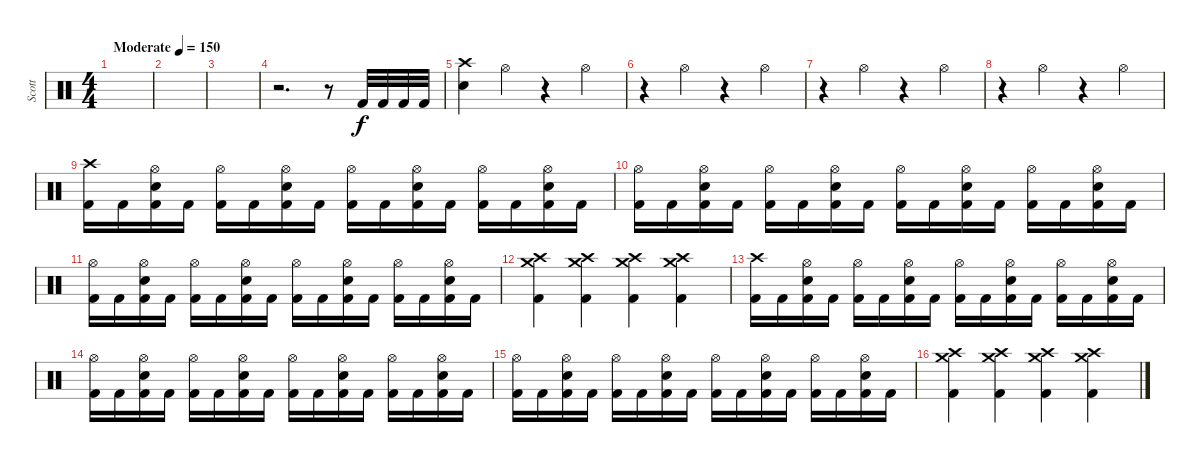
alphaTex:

\track ("Scott" "Scott") {instrument percussion}
\staff {score}
\articulation defaults
\ts (4 4)
\tempo (150 "Moderate")
\clef neutral
\ks c
|
|
|
r.2{d} r.8 "Kick (hit) 2".32 "Kick (hit) 2".32 "Kick (hit) 2".32 "Kick (hit) 2".32 |
("Crash high (hit)" "Snare (hit) 2").4 "Hi-Hat (open)".4 r.4 "Hi-Hat (open)".4 |
r.4 "Hi-Hat (open)".4 r.4 "Hi-Hat (open)".4 |
r.4 "Hi-Hat (open)".4 r.4 "Hi-Hat (open)".4 |
r.4 "Hi-Hat (open)".4 r.4 "Hi-Hat (open)".4 |
("Crash high (hit)" "Kick (hit) 2").16 "Kick (hit) 2".16 ("Hi-Hat (open)" "Snare (hit) 2" "Kick (hit) 2").16 "Kick (hit) 2".16 ("Hi-Hat (open)" "Kick (hit) 2").16 "Kick (hit) 2".16 ("Hi-Hat (open)" "Snare (hit) 2" "Kick (hit) 2").16 "Kick (hit) 2".16 ("Hi-Hat (open)" "Kick (hit) 2").16 "Kick (hit) 2".16 ("Hi-Hat (open)" "Snare (hit) 2" "Kick (hit) 2").16 "Kick (hit) 2".16 ("Hi-Hat (open)" "Kick (hit) 2").16 "Kick (hit) 2".16 ("Hi-Hat (open)" "Snare (hit) 2" "Kick (hit) 2").16 "Kick (hit) 2".16 |
("Hi-Hat (open)" "Kick (hit) 2").16 "Kick (hit) 2".16 ("Hi-Hat (open)" "Snare (hit) 2" "Kick (hit) 2").16 "Kick (hit) 2".16 ("Hi-Hat (open)" "Kick (hit) 2").16 "Kick (hit) 2".16 ("Hi-Hat (open)" "Snare (hit) 2" "Kick (hit) 2").16 "Kick (hit) 2".16 ("Hi-Hat (open)" "Kick (hit) 2").16 "Kick (hit) 2".16 ("Hi-Hat (open)" "Snare (hit) 2" "Kick (hit) 2").16 "Kick (hit) 2".16 ("Hi-Hat (open)" "Kick (hit) 2").16 "Kick (hit) 2".16 ("Hi-Hat (open)" "Snare (hit) 2" "Kick (hit) 2").16 "Kick (hit) 2".16 |
("Hi-Hat (open)" "Kick (hit) 2").16 "Kick (hit) 2".16 ("Hi-Hat (open)" "Snare (hit) 2" "Kick (hit) 2").16 "Kick (hit) 2".16 ("Hi-Hat (open)" "Kick (hit) 2").16 "Kick (hit) 2".16 ("Hi-Hat (open)" "Snare (hit) 2" "Kick (hit) 2").16 "Kick (hit) 2".16 ("Hi-Hat (open)" "Kick (hit) 2").16 "Kick (hit) 2".16 ("Hi-Hat (open)" "Snare (hit) 2" "Kick (hit) 2").16 "Kick (hit) 2".16 ("Hi-Hat (open)" "Kick (hit) 2").16 "Kick (hit) 2".16 ("Hi-Hat (open)" "Snare (hit) 2" "Kick (hit) 2").16 "Kick (hit) 2".16 |
("Crash high (hit)" "Crash medium (hit)" "Kick (hit) 2").4 ("Crash medium (hit)" "Crash high (hit)" "Kick (hit) 2").4 ("Crash high (hit)" "Crash medium (hit)" "Kick (hit) 2").4 ("Crash medium (hit)" "Crash high (hit)" "Kick (hit) 2").4 |
("Crash high (hit)" "Kick (hit) 2").16 "Kick (hit) 2".16 ("Hi-Hat (open)" "Snare (hit) 2" "Kick (hit) 2").16 "Kick (hit) 2".16 ("Hi-Hat (open)" "Kick (hit) 2").16 "Kick (hit) 2".16 ("Hi-Hat (open)" "Snare (hit) 2" "Kick (hit) 2").16 "Kick (hit) 2".16 ("Hi-Hat (open)" "Kick (hit) 2").16 "Kick (hit) 2".16 ("Hi-Hat (open)" "Snare (hit) 2" "Kick (hit) 2").16 "Kick (hit) 2".16 ("Hi-Hat (open)" "Kick (hit) 2").16 "Kick (hit) 2".16 ("Hi-Hat (open)" "Snare (hit) 2" "Kick (hit) 2").16 "Kick (hit) 2".16 |
("Hi-Hat (open)" "Kick (hit) 2").16 "Kick (hit) 2".16 ("Hi-Hat (open)" "Snare (hit) 2" "Kick (hit) 2").16 "Kick (hit) 2".16 ("Hi-Hat (open)" "Kick (hit) 2").16 "Kick (hit) 2".16 ("Hi-Hat (open)" "Snare (hit) 2" "Kick (hit) 2").16 "Kick (hit) 2".16 ("Hi-Hat (open)" "Kick (hit) 2").16 "Kick (hit) 2".16 ("Hi-Hat (open)" "Snare (hit) 2" "Kick (hit) 2").16 "Kick (hit) 2".16 ("Hi-Hat (open)" "Kick (hit) 2").16 "Kick (hit) 2".16 ("Hi-Hat (open)" "Snare (hit) 2" "Kick (hit) 2").16 "Kick (hit) 2".16 |
("Hi-Hat (open)" "Kick (hit) 2").16 "Kick (hit) 2".16 ("Hi-Hat (open)" "Snare (hit) 2" "Kick (hit) 2").16 "Kick (hit) 2".16 ("Hi-Hat (open)" "Kick (hit) 2").16 "Kick (hit) 2".16 ("Hi-Hat (open)" "Snare (hit) 2" "Kick (hit) 2").16 "Kick (hit) 2".16 ("Hi-Hat (open)" "Kick (hit) 2").16 "Kick (hit) 2".16 ("Hi-Hat (open)" "Snare (hit) 2" "Kick (hit) 2").16 "Kick (hit) 2".16 ("Hi-Hat (open)" "Kick (hit) 2").16 "Kick (hit) 2".16 ("Hi-Hat (open)" "Snare (hit) 2" "Kick (hit) 2").16 "Kick (hit) 2".16 |
("Crash high (hit)" "Crash medium (hit)" "Kick (hit) 2").4 ("Crash medium (hit)" "Crash high (hit)" "Kick (hit) 2").4 ("Crash high (hit)" "Crash medium (hit)" "Kick (hit) 2").4 ("Crash medium (hit)" "Crash high (hit)" "Kick (hit) 2").4
